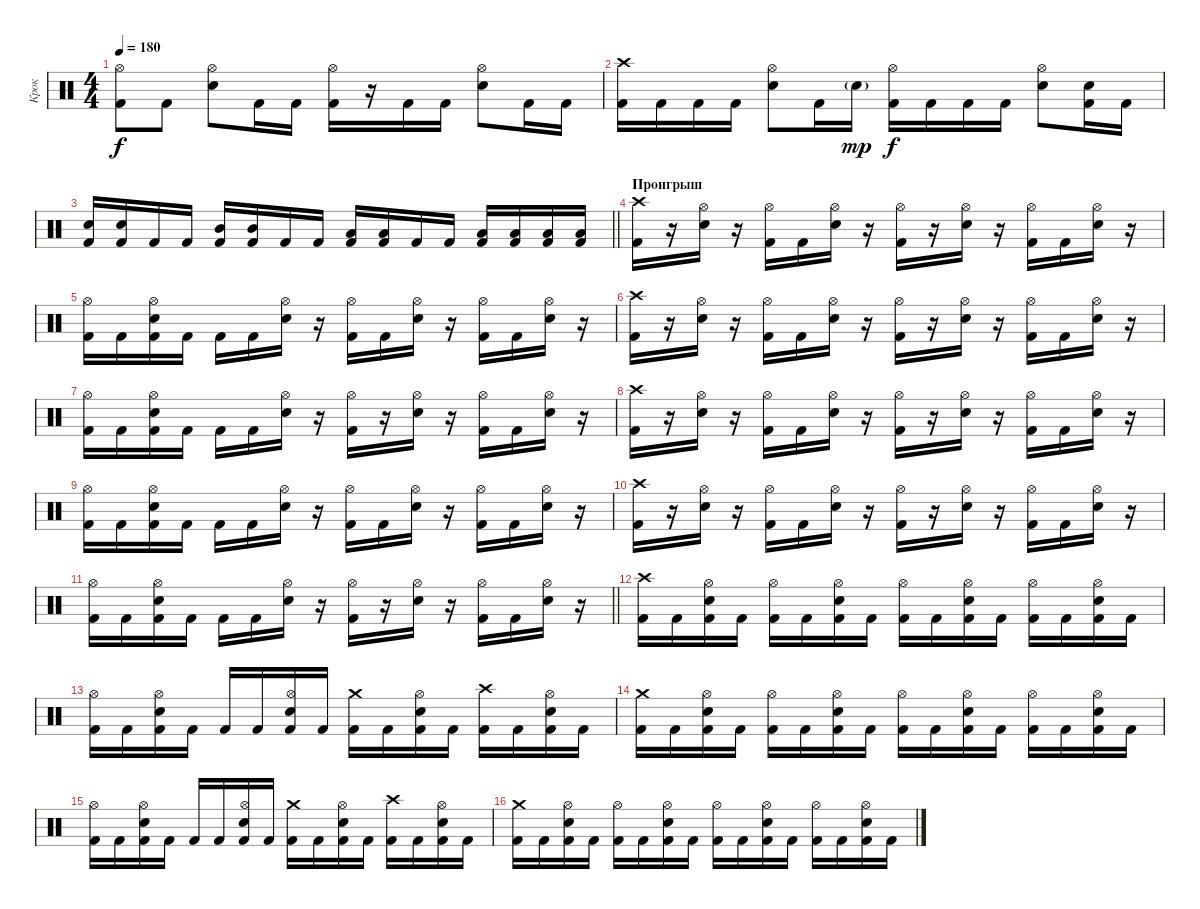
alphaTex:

\track ("Крок" "Крок") {instrument percussion}
\staff {score}
\articulation defaults
\ts (4 4)
\tempo 180
\clef neutral
\ks c
("Kick (hit) 2" "Hi-Hat (open)").8{dy f} "Kick (hit) 2".8 ("Electric Snare (hit)" "Hi-Hat (open)").8 "Kick (hit) 2".16 "Kick (hit) 2".16 ("Kick (hit) 2" "Hi-Hat (open)").16 r.16 "Kick (hit) 2".16 "Kick (hit) 2".16 ("Electric Snare (hit)" "Hi-Hat (open)").8 "Kick (hit) 2".16 "Kick (hit) 2".16 |
("Kick (hit) 2" "Crash high (hit)").16 "Kick (hit) 2".16 "Kick (hit) 2".16 "Kick (hit) 2".16 ("Electric Snare (hit)" "Hi-Hat (open)").8 "Kick (hit) 2".16 "Electric Snare (hit)"{g}.16{dy mp} ("Kick (hit) 2" "Hi-Hat (open)").16{dy f} "Kick (hit) 2".16 "Kick (hit) 2".16 "Kick (hit) 2".16 ("Electric Snare (hit)" "Hi-Hat (open)").8 ("Kick (hit) 2" "Electric Snare (hit)").16 "Kick (hit) 2".16 |
\barLineRight lightlight
("Electric Snare (hit)" "Kick (hit) 2").16 ("Electric Snare (hit)" "Kick (hit) 2").16 "Kick (hit) 2".16 "Kick (hit) 2".16 ("Mid Tom (hit)" "Kick (hit) 2").16 ("Mid Tom (hit)" "Kick (hit) 2").16 "Kick (hit) 2".16 "Kick (hit) 2".16 ("Low Tom (hit)" "Kick (hit) 2").16 ("Low Tom (hit)" "Kick (hit) 2").16 "Kick (hit) 2".16 "Kick (hit) 2".16 ("Low Floor Tom (hit)" "Kick (hit) 2").16 ("Low Floor Tom (hit)" "Kick (hit) 2").16 ("Low Floor Tom (hit)" "Kick (hit) 2").16 ("Low Floor Tom (hit)" "Kick (hit) 2").16 |
\section ("" "Проигрыш")
("Kick (hit) 2" "Crash high (hit)").16 r.16 ("Electric Snare (hit)" "Hi-Hat (open)").16 r.16 ("Kick (hit) 2" "Hi-Hat (open)").16 "Kick (hit) 2".16 ("Electric Snare (hit)" "Hi-Hat (open)").16 r.16 ("Kick (hit) 2" "Hi-Hat (open)").16 r.16 ("Electric Snare (hit)" "Hi-Hat (open)").16 r.16 ("Kick (hit) 2" "Hi-Hat (open)").16 "Kick (hit) 2".16 ("Electric Snare (hit)" "Hi-Hat (open)").16 r.16 |
("Kick (hit) 2" "Hi-Hat (open)").16 "Kick (hit) 2".16 ("Kick (hit) 2" "Electric Snare (hit)" "Hi-Hat (open)").16 "Kick (hit) 2".16 "Kick (hit) 2".16 "Kick (hit) 2".16 ("Electric Snare (hit)" "Hi-Hat (open)").16 r.16 ("Kick (hit) 2" "Hi-Hat (open)").16 "Kick (hit) 2".16 ("Electric Snare (hit)" "Hi-Hat (open)").16 r.16 ("Kick (hit) 2" "Hi-Hat (open)").16 "Kick (hit) 2".16 ("Electric Snare (hit)" "Hi-Hat (open)").16 r.16 |
("Kick (hit) 2" "Crash high (hit)").16 r.16 ("Electric Snare (hit)" "Hi-Hat (open)").16 r.16 ("Kick (hit) 2" "Hi-Hat (open)").16 "Kick (hit) 2".16 ("Electric Snare (hit)" "Hi-Hat (open)").16 r.16 ("Kick (hit) 2" "Hi-Hat (open)").16 r.16 ("Electric Snare (hit)" "Hi-Hat (open)").16 r.16 ("Kick (hit) 2" "Hi-Hat (open)").16 "Kick (hit) 2".16 ("Electric Snare (hit)" "Hi-Hat (open)").16 r.16 |
("Kick (hit) 2" "Hi-Hat (open)").16 "Kick (hit) 2".16 ("Kick (hit) 2" "Electric Snare (hit)" "Hi-Hat (open)").16 "Kick (hit) 2".16 "Kick (hit) 2".16 "Kick (hit) 2".16 ("Electric Snare (hit)" "Hi-Hat (open)").16 r.16 ("Kick (hit) 2" "Hi-Hat (open)").16 r.16 ("Electric Snare (hit)" "Hi-Hat (open)").16 r.16 ("Kick (hit) 2" "Hi-Hat (open)").16 "Kick (hit) 2".16 ("Electric Snare (hit)" "Hi-Hat (open)").16 r.16 |
("Kick (hit) 2" "Crash high (hit)").16 r.16 ("Electric Snare (hit)" "Hi-Hat (open)").16 r.16 ("Kick (hit) 2" "Hi-Hat (open)").16 "Kick (hit) 2".16 ("Electric Snare (hit)" "Hi-Hat (open)").16 r.16 ("Kick (hit) 2" "Hi-Hat (open)").16 r.16 ("Electric Snare (hit)" "Hi-Hat (open)").16 r.16 ("Kick (hit) 2" "Hi-Hat (open)").16 "Kick (hit) 2".16 ("Electric Snare (hit)" "Hi-Hat (open)").16 r.16 |
("Kick (hit) 2" "Hi-Hat (open)").16 "Kick (hit) 2".16 ("Kick (hit) 2" "Electric Snare (hit)" "Hi-Hat (open)").16 "Kick (hit) 2".16 "Kick (hit) 2".16 "Kick (hit) 2".16 ("Electric Snare (hit)" "Hi-Hat (open)").16 r.16 ("Kick (hit) 2" "Hi-Hat (open)").16 "Kick (hit) 2".16 ("Electric Snare (hit)" "Hi-Hat (open)").16 r.16 ("Kick (hit) 2" "Hi-Hat (open)").16 "Kick (hit) 2".16 ("Electric Snare (hit)" "Hi-Hat (open)").16 r.16 |
("Kick (hit) 2" "Crash high (hit)").16 r.16 ("Electric Snare (hit)" "Hi-Hat (open)").16 r.16 ("Kick (hit) 2" "Hi-Hat (open)").16 "Kick (hit) 2".16 ("Electric Snare (hit)" "Hi-Hat (open)").16 r.16 ("Kick (hit) 2" "Hi-Hat (open)").16 r.16 ("Electric Snare (hit)" "Hi-Hat (open)").16 r.16 ("Kick (hit) 2" "Hi-Hat (open)").16 "Kick (hit) 2".16 ("Electric Snare (hit)" "Hi-Hat (open)").16 r.16 |
\barLineRight lightlight
("Kick (hit) 2" "Hi-Hat (open)").16 "Kick (hit) 2".16 ("Kick (hit) 2" "Electric Snare (hit)" "Hi-Hat (open)").16 "Kick (hit) 2".16 "Kick (hit) 2".16 "Kick (hit) 2".16 ("Electric Snare (hit)" "Hi-Hat (open)").16 r.16 ("Kick (hit) 2" "Hi-Hat (open)").16 r.16 ("Electric Snare (hit)" "Hi-Hat (open)").16 r.16 ("Kick (hit) 2" "Hi-Hat (open)").16 "Kick (hit) 2".16 ("Electric Snare (hit)" "Hi-Hat (open)").16 r.16 |
("Kick (hit) 2" "Crash high (hit)").16 "Kick (hit) 2".16 ("Kick (hit) 2" "Electric Snare (hit)" "Hi-Hat (open)").16 "Kick (hit) 2".16 ("Kick (hit) 2" "Hi-Hat (open)").16 "Kick (hit) 2".16 ("Kick (hit) 2" "Electric Snare (hit)" "Hi-Hat (open)").16 "Kick (hit) 2".16 ("Kick (hit) 2" "Hi-Hat (open)").16 "Kick (hit) 2".16 ("Kick (hit) 2" "Electric Snare (hit)" "Hi-Hat (open)").16 "Kick (hit) 2".16 ("Kick (hit) 2" "Hi-Hat (open)").16 "Kick (hit) 2".16 ("Kick (hit) 2" "Electric Snare (hit)" "Hi-Hat (open)").16 "Kick (hit) 2".16 |
("Kick (hit) 2" "Hi-Hat (open)").16 "Kick (hit) 2".16 ("Kick (hit) 2" "Electric Snare (hit)" "Hi-Hat (open)").16 "Kick (hit) 2".16 "Kick (hit) 2".16 "Kick (hit) 2".16 ("Kick (hit) 2" "Electric Snare (hit)" "Hi-Hat (open)").16 "Kick (hit) 2".16 ("Kick (hit) 2" "Crash medium (hit)").16 "Kick (hit) 2".16 ("Kick (hit) 2" "Electric Snare (hit)" "Hi-Hat (open)").16 "Kick (hit) 2".16 ("Kick (hit) 2" "Crash high (hit)").16 "Kick (hit) 2".16 ("Kick (hit) 2" "Electric Snare (hit)" "Hi-Hat (open)").16 "Kick (hit) 2".16 |
("Kick (hit) 2" "Crash medium (hit)").16 "Kick (hit) 2".16 ("Kick (hit) 2" "Electric Snare (hit)" "Hi-Hat (open)").16 "Kick (hit) 2".16 ("Kick (hit) 2" "Hi-Hat (open)").16 "Kick (hit) 2".16 ("Kick (hit) 2" "Electric Snare (hit)" "Hi-Hat (open)").16 "Kick (hit) 2".16 ("Kick (hit) 2" "Hi-Hat (open)").16 "Kick (hit) 2".16 ("Kick (hit) 2" "Electric Snare (hit)" "Hi-Hat (open)").16 "Kick (hit) 2".16 ("Kick (hit) 2" "Hi-Hat (open)").16 "Kick (hit) 2".16 ("Kick (hit) 2" "Electric Snare (hit)" "Hi-Hat (open)").16 "Kick (hit) 2".16 |
("Kick (hit) 2" "Hi-Hat (open)").16 "Kick (hit) 2".16 ("Kick (hit) 2" "Electric Snare (hit)" "Hi-Hat (open)").16 "Kick (hit) 2".16 "Kick (hit) 2".16 "Kick (hit) 2".16 ("Kick (hit) 2" "Electric Snare (hit)" "Hi-Hat (open)").16 "Kick (hit) 2".16 ("Kick (hit) 2" "Crash medium (hit)").16 "Kick (hit) 2".16 ("Kick (hit) 2" "Electric Snare (hit)" "Hi-Hat (open)").16 "Kick (hit) 2".16 ("Kick (hit) 2" "Crash high (hit)").16 "Kick (hit) 2".16 ("Kick (hit) 2" "Electric Snare (hit)" "Hi-Hat (open)").16 "Kick (hit) 2".16 |
("Kick (hit) 2" "Crash medium (hit)").16 "Kick (hit) 2".16 ("Kick (hit) 2" "Electric Snare (hit)" "Hi-Hat (open)").16 "Kick (hit) 2".16 ("Kick (hit) 2" "Hi-Hat (open)").16 "Kick (hit) 2".16 ("Kick (hit) 2" "Electric Snare (hit)" "Hi-Hat (open)").16 "Kick (hit) 2".16 ("Kick (hit) 2" "Hi-Hat (open)").16 "Kick (hit) 2".16 ("Kick (hit) 2" "Electric Snare (hit)" "Hi-Hat (open)").16 "Kick (hit) 2".16 ("Kick (hit) 2" "Hi-Hat (open)").16 "Kick (hit) 2".16 ("Kick (hit) 2" "Electric Snare (hit)" "Hi-Hat (open)").16 "Kick (hit) 2".16
